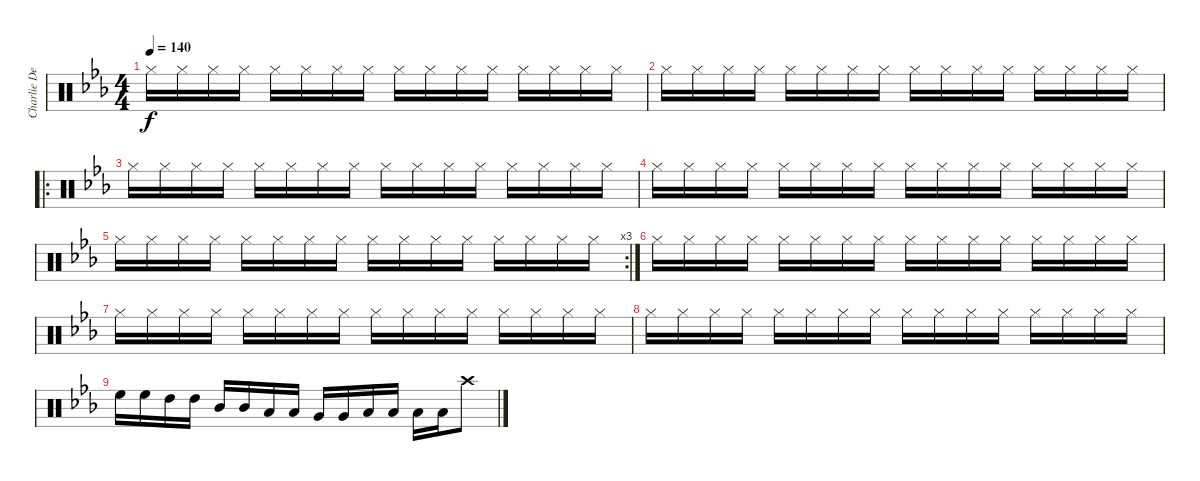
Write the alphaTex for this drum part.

\track ("Charlie Devil" "Charlie De") {instrument percussion}
\staff {score}
\articulation defaults
\ts (4 4)
\tempo 140
\clef neutral
\ks eb "Hi-Hat (closed)".16{dy f} "Hi-Hat (closed)".16 "Hi-Hat (closed)".16 "Hi-Hat (closed)".16 "Hi-Hat (closed)".16 "Hi-Hat (closed)".16 "Hi-Hat (closed)".16 "Hi-Hat (closed)".16 "Hi-Hat (closed)".16 "Hi-Hat (closed)".16 "Hi-Hat (closed)".16 "Hi-Hat (closed)".16 "Hi-Hat (closed)".16 "Hi-Hat (closed)".16 "Hi-Hat (closed)".16 "Hi-Hat (closed)".16
|
"Hi-Hat (closed)".16 "Hi-Hat (closed)".16 "Hi-Hat (closed)".16 "Hi-Hat (closed)".16 "Hi-Hat (closed)".16 "Hi-Hat (closed)".16 "Hi-Hat (closed)".16 "Hi-Hat (closed)".16 "Hi-Hat (closed)".16 "Hi-Hat (closed)".16 "Hi-Hat (closed)".16 "Hi-Hat (closed)".16 "Hi-Hat (closed)".16 "Hi-Hat (closed)".16 "Hi-Hat (closed)".16 "Hi-Hat (closed)".16 |
\ro "Hi-Hat (closed)".16 "Hi-Hat (closed)".16 "Hi-Hat (closed)".16 "Hi-Hat (closed)".16 "Hi-Hat (closed)".16 "Hi-Hat (closed)".16 "Hi-Hat (closed)".16 "Hi-Hat (closed)".16 "Hi-Hat (closed)".16 "Hi-Hat (closed)".16 "Hi-Hat (closed)".16 "Hi-Hat (closed)".16 "Hi-Hat (closed)".16 "Hi-Hat (closed)".16 "Hi-Hat (closed)".16 "Hi-Hat (closed)".16
|
"Hi-Hat (closed)".16 "Hi-Hat (closed)".16 "Hi-Hat (closed)".16 "Hi-Hat (closed)".16 "Hi-Hat (closed)".16 "Hi-Hat (closed)".16 "Hi-Hat (closed)".16 "Hi-Hat (closed)".16 "Hi-Hat (closed)".16 "Hi-Hat (closed)".16 "Hi-Hat (closed)".16 "Hi-Hat (closed)".16 "Hi-Hat (closed)".16 "Hi-Hat (closed)".16 "Hi-Hat (closed)".16 "Hi-Hat (closed)".16 |
\rc 3 "Hi-Hat (closed)".16 "Hi-Hat (closed)".16 "Hi-Hat (closed)".16 "Hi-Hat (closed)".16 "Hi-Hat (closed)".16 "Hi-Hat (closed)".16 "Hi-Hat (closed)".16 "Hi-Hat (closed)".16 "Hi-Hat (closed)".16 "Hi-Hat (closed)".16 "Hi-Hat (closed)".16 "Hi-Hat (closed)".16 "Hi-Hat (closed)".16 "Hi-Hat (closed)".16 "Hi-Hat (closed)".16 "Hi-Hat (closed)".16
|
"Hi-Hat (closed)".16 "Hi-Hat (closed)".16 "Hi-Hat (closed)".16 "Hi-Hat (closed)".16 "Hi-Hat (closed)".16 "Hi-Hat (closed)".16 "Hi-Hat (closed)".16 "Hi-Hat (closed)".16 "Hi-Hat (closed)".16 "Hi-Hat (closed)".16 "Hi-Hat (closed)".16 "Hi-Hat (closed)".16 "Hi-Hat (closed)".16 "Hi-Hat (closed)".16 "Hi-Hat (closed)".16 "Hi-Hat (closed)".16 |
"Hi-Hat (closed)".16 "Hi-Hat (closed)".16 "Hi-Hat (closed)".16 "Hi-Hat (closed)".16 "Hi-Hat (closed)".16 "Hi-Hat (closed)".16 "Hi-Hat (closed)".16 "Hi-Hat (closed)".16 "Hi-Hat (closed)".16 "Hi-Hat (closed)".16 "Hi-Hat (closed)".16 "Hi-Hat (closed)".16 "Hi-Hat (closed)".16 "Hi-Hat (closed)".16 "Hi-Hat (closed)".16 "Hi-Hat (closed)".16 |
"Hi-Hat (closed)".16 "Hi-Hat (closed)".16 "Hi-Hat (closed)".16 "Hi-Hat (closed)".16 "Hi-Hat (closed)".16 "Hi-Hat (closed)".16 "Hi-Hat (closed)".16 "Hi-Hat (closed)".16 "Hi-Hat (closed)".16 "Hi-Hat (closed)".16 "Hi-Hat (closed)".16 "Hi-Hat (closed)".16 "Hi-Hat (closed)".16 "Hi-Hat (closed)".16 "Hi-Hat (closed)".16 "Hi-Hat (closed)".16 |
"High Floor Tom (hit)".16 "High Floor Tom (hit)".16 "High Tom (hit)".16 "High Tom (hit)".16 "Mid Tom (hit)".16 "Mid Tom (hit)".16 "Low Tom (hit)".16 "Low Tom (hit)".16 "Very Low Tom (hit)".16 "Very Low Tom (hit)".16 "Low Floor Tom (hit)".16 "Low Floor Tom (hit)".16 "Low Floor Tom (hit)".16 "Low Floor Tom (hit)".16 "Crash high (hit)".8
